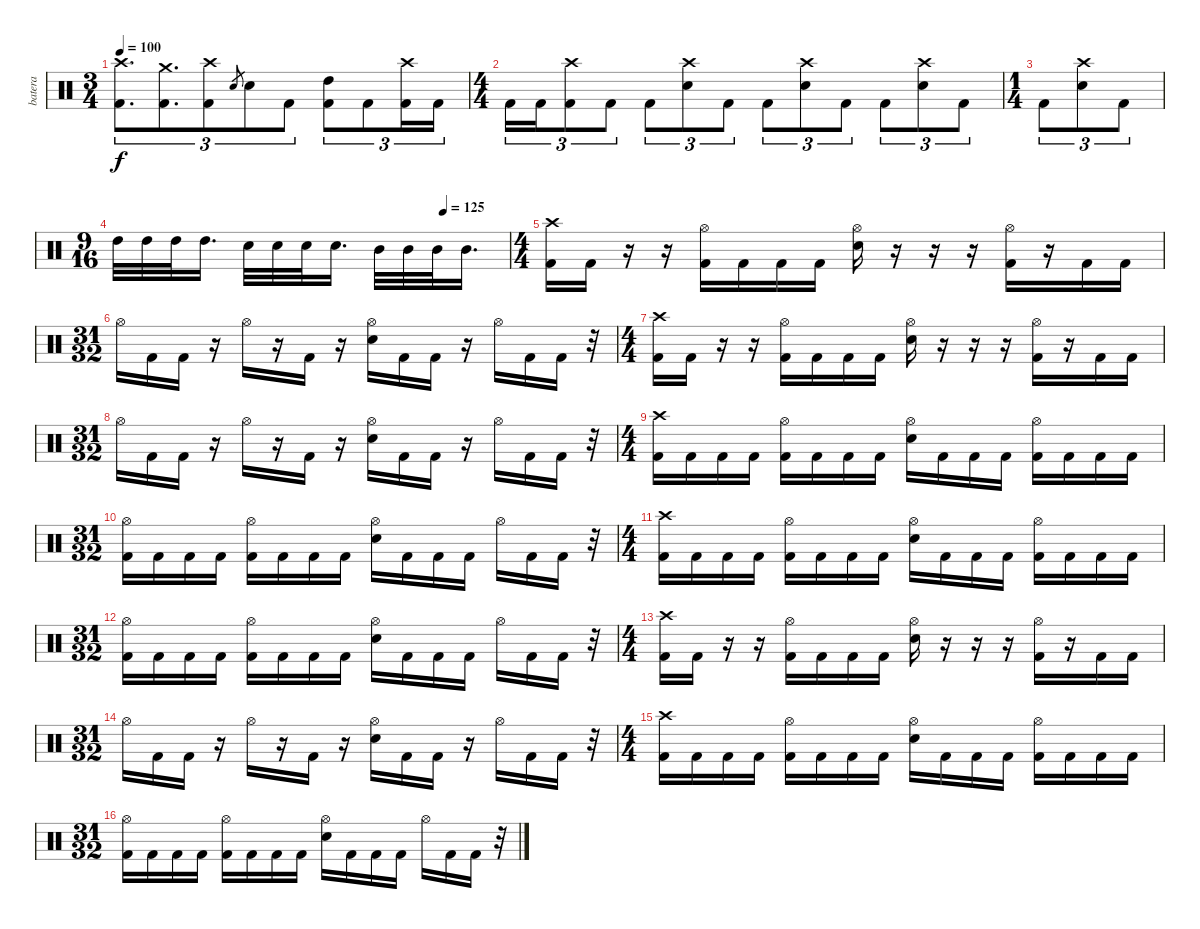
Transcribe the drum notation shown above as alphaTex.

\track ("batera" "batera") {instrument percussion}
\staff {score}
\articulation defaults
\ts (3 4)
\tempo 100
\clef neutral
\ks c
("Crash high (hit)" "Kick (hit) 2").8{d tu (3 2) dy f} ("Crash medium (hit)" "Kick (hit) 2").8{d tu (3 2)} ("Crash high (hit)" "Kick (hit) 2").8{tu (3 2)} "Electric Snare (hit)".8{gr} "Electric Snare (hit)".8{tu (3 2)} "Kick (hit) 2".8{tu (3 2)} ("High Tom (hit)" "Kick (hit) 2").8{tu (3 2)} "Kick (hit) 2".8{tu (3 2)} ("Crash high (hit)" "Kick (hit) 2").16{tu (3 2)} "Kick (hit) 2".16{tu (3 2)} |
\ts (4 4)
"Kick (hit) 2".16{tu (3 2)} "Kick (hit) 2".16{tu (3 2)} ("Crash high (hit)" "Kick (hit) 2").8{tu (3 2)} "Kick (hit) 2".8{tu (3 2)} "Kick (hit) 2".8{tu (3 2)} ("Crash high (hit)" "Electric Snare (hit)").8{tu (3 2)} "Kick (hit) 2".8{tu (3 2)} "Kick (hit) 2".8{tu (3 2)} ("Crash high (hit)" "Electric Snare (hit)").8{tu (3 2)} "Kick (hit) 2".8{tu (3 2)} "Kick (hit) 2".8{tu (3 2)} ("Crash high (hit)" "Electric Snare (hit)").8{tu (3 2)} "Kick (hit) 2".8{tu (3 2)} |
\ts (1 4)
"Kick (hit) 2".8{tu (3 2)} ("Crash high (hit)" "Electric Snare (hit)").8{tu (3 2)} "Kick (hit) 2".8{tu (3 2)} |
\ts (9 16)
\tempo (125 0.8333333333333334)
"High Tom (hit)".32 "High Tom (hit)".32 "High Tom (hit)".32 "High Tom (hit)".16{d} "Electric Snare (hit)".32 "Electric Snare (hit)".32 "Electric Snare (hit)".32 "Electric Snare (hit)".16{d} "Mid Tom (hit)".32 "Mid Tom (hit)".32 "Mid Tom (hit)".32 "Mid Tom (hit)".16{d} |
\ts (4 4)
("Crash high (hit)" "Kick (hit) 2").16 "Kick (hit) 2".16 r.16 r.16 ("Hi-Hat (open)" "Kick (hit) 2").16 "Kick (hit) 2".16 "Kick (hit) 2".16 "Kick (hit) 2".16 ("Hi-Hat (open)" "Electric Snare (hit)").16 r.16 r.16 r.16 ("Hi-Hat (open)" "Kick (hit) 2").16 r.16 "Kick (hit) 2".16 "Kick (hit) 2".16 |
\ts (31 32)
"Hi-Hat (open)".16 "Kick (hit) 2".16 "Kick (hit) 2".16 r.16 "Hi-Hat (open)".16 r.16 "Kick (hit) 2".16 r.16 ("Hi-Hat (open)" "Electric Snare (hit)").16 "Kick (hit) 2".16 "Kick (hit) 2".16 r.16 "Hi-Hat (open)".16 "Kick (hit) 2".16 "Kick (hit) 2".16 r.32 |
\ts (4 4)
("Crash high (hit)" "Kick (hit) 2").16 "Kick (hit) 2".16 r.16 r.16 ("Hi-Hat (open)" "Kick (hit) 2").16 "Kick (hit) 2".16 "Kick (hit) 2".16 "Kick (hit) 2".16 ("Hi-Hat (open)" "Electric Snare (hit)").16 r.16 r.16 r.16 ("Hi-Hat (open)" "Kick (hit) 2").16 r.16 "Kick (hit) 2".16 "Kick (hit) 2".16 |
\ts (31 32)
"Hi-Hat (open)".16 "Kick (hit) 2".16 "Kick (hit) 2".16 r.16 "Hi-Hat (open)".16 r.16 "Kick (hit) 2".16 r.16 ("Hi-Hat (open)" "Electric Snare (hit)").16 "Kick (hit) 2".16 "Kick (hit) 2".16 r.16 "Hi-Hat (open)".16 "Kick (hit) 2".16 "Kick (hit) 2".16 r.32 |
\ts (4 4)
("Crash high (hit)" "Kick (hit) 2").16 "Kick (hit) 2".16 "Kick (hit) 2".16 "Kick (hit) 2".16 ("Hi-Hat (open)" "Kick (hit) 2").16 "Kick (hit) 2".16 "Kick (hit) 2".16 "Kick (hit) 2".16 ("Hi-Hat (open)" "Electric Snare (hit)").16 "Kick (hit) 2".16 "Kick (hit) 2".16 "Kick (hit) 2".16 ("Hi-Hat (open)" "Kick (hit) 2").16 "Kick (hit) 2".16 "Kick (hit) 2".16 "Kick (hit) 2".16 |
\ts (31 32)
("Hi-Hat (open)" "Kick (hit) 2").16 "Kick (hit) 2".16 "Kick (hit) 2".16 "Kick (hit) 2".16 ("Hi-Hat (open)" "Kick (hit) 2").16 "Kick (hit) 2".16 "Kick (hit) 2".16 "Kick (hit) 2".16 ("Hi-Hat (open)" "Electric Snare (hit)").16 "Kick (hit) 2".16 "Kick (hit) 2".16 "Kick (hit) 2".16 "Hi-Hat (open)".16 "Kick (hit) 2".16 "Kick (hit) 2".16 r.32 |
\ts (4 4)
("Crash high (hit)" "Kick (hit) 2").16 "Kick (hit) 2".16 "Kick (hit) 2".16 "Kick (hit) 2".16 ("Hi-Hat (open)" "Kick (hit) 2").16 "Kick (hit) 2".16 "Kick (hit) 2".16 "Kick (hit) 2".16 ("Hi-Hat (open)" "Electric Snare (hit)").16 "Kick (hit) 2".16 "Kick (hit) 2".16 "Kick (hit) 2".16 ("Hi-Hat (open)" "Kick (hit) 2").16 "Kick (hit) 2".16 "Kick (hit) 2".16 "Kick (hit) 2".16 |
\ts (31 32)
("Hi-Hat (open)" "Kick (hit) 2").16 "Kick (hit) 2".16 "Kick (hit) 2".16 "Kick (hit) 2".16 ("Hi-Hat (open)" "Kick (hit) 2").16 "Kick (hit) 2".16 "Kick (hit) 2".16 "Kick (hit) 2".16 ("Hi-Hat (open)" "Electric Snare (hit)").16 "Kick (hit) 2".16 "Kick (hit) 2".16 "Kick (hit) 2".16 "Hi-Hat (open)".16 "Kick (hit) 2".16 "Kick (hit) 2".16 r.32 |
\ts (4 4)
("Crash high (hit)" "Kick (hit) 2").16 "Kick (hit) 2".16 r.16 r.16 ("Hi-Hat (open)" "Kick (hit) 2").16 "Kick (hit) 2".16 "Kick (hit) 2".16 "Kick (hit) 2".16 ("Hi-Hat (open)" "Electric Snare (hit)").16 r.16 r.16 r.16 ("Hi-Hat (open)" "Kick (hit) 2").16 r.16 "Kick (hit) 2".16 "Kick (hit) 2".16 |
\ts (31 32)
"Hi-Hat (open)".16 "Kick (hit) 2".16 "Kick (hit) 2".16 r.16 "Hi-Hat (open)".16 r.16 "Kick (hit) 2".16 r.16 ("Hi-Hat (open)" "Electric Snare (hit)").16 "Kick (hit) 2".16 "Kick (hit) 2".16 r.16 "Hi-Hat (open)".16 "Kick (hit) 2".16 "Kick (hit) 2".16 r.32 |
\ts (4 4)
("Crash high (hit)" "Kick (hit) 2").16 "Kick (hit) 2".16 "Kick (hit) 2".16 "Kick (hit) 2".16 ("Hi-Hat (open)" "Kick (hit) 2").16 "Kick (hit) 2".16 "Kick (hit) 2".16 "Kick (hit) 2".16 ("Hi-Hat (open)" "Electric Snare (hit)").16 "Kick (hit) 2".16 "Kick (hit) 2".16 "Kick (hit) 2".16 ("Hi-Hat (open)" "Kick (hit) 2").16 "Kick (hit) 2".16 "Kick (hit) 2".16 "Kick (hit) 2".16 |
\ts (31 32)
("Hi-Hat (open)" "Kick (hit) 2").16 "Kick (hit) 2".16 "Kick (hit) 2".16 "Kick (hit) 2".16 ("Hi-Hat (open)" "Kick (hit) 2").16 "Kick (hit) 2".16 "Kick (hit) 2".16 "Kick (hit) 2".16 ("Hi-Hat (open)" "Electric Snare (hit)").16 "Kick (hit) 2".16 "Kick (hit) 2".16 "Kick (hit) 2".16 "Hi-Hat (open)".16 "Kick (hit) 2".16 "Kick (hit) 2".16 r.32
